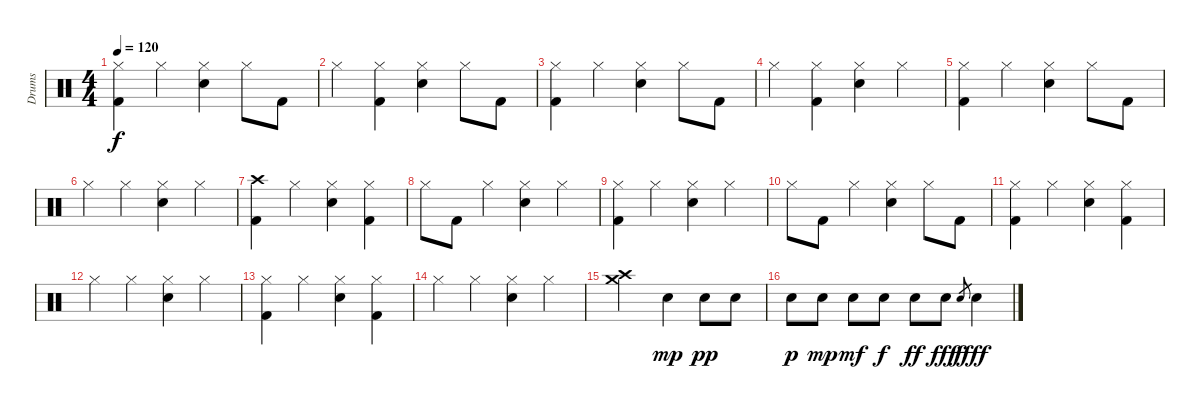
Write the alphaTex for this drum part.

\track ("Drums" "Drums") {instrument percussion}
\staff {score}
\articulation defaults
\ts (4 4)
\tempo 120
\clef neutral
\ks c
("Hi-Hat (closed)" "Kick (hit) 2").4{dy f} "Hi-Hat (closed)".4 ("Hi-Hat (closed)" "Snare (hit) 2").4 "Hi-Hat (closed)".8 "Kick (hit) 2".8 |
"Hi-Hat (closed)".4 ("Hi-Hat (closed)" "Kick (hit) 2").4 ("Hi-Hat (closed)" "Snare (hit) 2").4 "Hi-Hat (closed)".8 "Kick (hit) 2".8 |
("Hi-Hat (closed)" "Kick (hit) 2").4 "Hi-Hat (closed)".4 ("Hi-Hat (closed)" "Snare (hit) 2").4 "Hi-Hat (closed)".8 "Kick (hit) 2".8 |
"Hi-Hat (closed)".4 ("Hi-Hat (closed)" "Kick (hit) 2").4 ("Hi-Hat (closed)" "Snare (hit) 2").4 "Hi-Hat (closed)".4 |
("Hi-Hat (closed)" "Kick (hit) 2").4 "Hi-Hat (closed)".4 ("Hi-Hat (closed)" "Snare (hit) 2").4 "Hi-Hat (closed)".8 "Kick (hit) 2".8 |
"Hi-Hat (closed)".4 "Hi-Hat (closed)".4 ("Hi-Hat (closed)" "Snare (hit) 2").4 "Hi-Hat (closed)".4 |
("Crash high (hit)" "Kick (hit) 2").4 "Hi-Hat (closed)".4 ("Hi-Hat (closed)" "Snare (hit) 2").4 ("Hi-Hat (closed)" "Kick (hit) 2").4 |
"Hi-Hat (closed)".8 "Kick (hit) 2".8 "Hi-Hat (closed)".4 ("Hi-Hat (closed)" "Snare (hit) 2").4 "Hi-Hat (closed)".4 |
("Hi-Hat (closed)" "Kick (hit) 2").4 "Hi-Hat (closed)".4 ("Hi-Hat (closed)" "Snare (hit) 2").4 "Hi-Hat (closed)".4 |
"Hi-Hat (closed)".8 "Kick (hit) 2".8 "Hi-Hat (closed)".4 ("Hi-Hat (closed)" "Snare (hit) 2").4 "Hi-Hat (closed)".8 "Kick (hit) 2".8 |
("Hi-Hat (closed)" "Kick (hit) 2").4 "Hi-Hat (closed)".4 ("Hi-Hat (closed)" "Snare (hit) 2").4 ("Hi-Hat (closed)" "Kick (hit) 2").4 |
"Hi-Hat (closed)".4 "Hi-Hat (closed)".4 ("Hi-Hat (closed)" "Snare (hit) 2").4 "Hi-Hat (closed)".4 |
("Hi-Hat (closed)" "Kick (hit) 2").4 "Hi-Hat (closed)".4 ("Hi-Hat (closed)" "Snare (hit) 2").4 ("Hi-Hat (closed)" "Kick (hit) 2").4 |
"Hi-Hat (closed)".4 "Hi-Hat (closed)".4 ("Hi-Hat (closed)" "Snare (hit) 2").4 "Hi-Hat (closed)".4 |
("Crash high (hit)" "Crash medium (hit)").2 "Electric Snare (hit)".4{dy mp} "Electric Snare (hit)".8{dy pp} "Electric Snare (hit)".8 |
"Electric Snare (hit)".8{dy p} "Electric Snare (hit)".8{dy mp} "Electric Snare (hit)".8{dy mf} "Electric Snare (hit)".8{dy f} "Electric Snare (hit)".8{dy ff} "Electric Snare (hit)".8{dy fff} "Electric Snare (hit)".8{gr dy f} "Electric Snare (hit)".4{dy fff}
